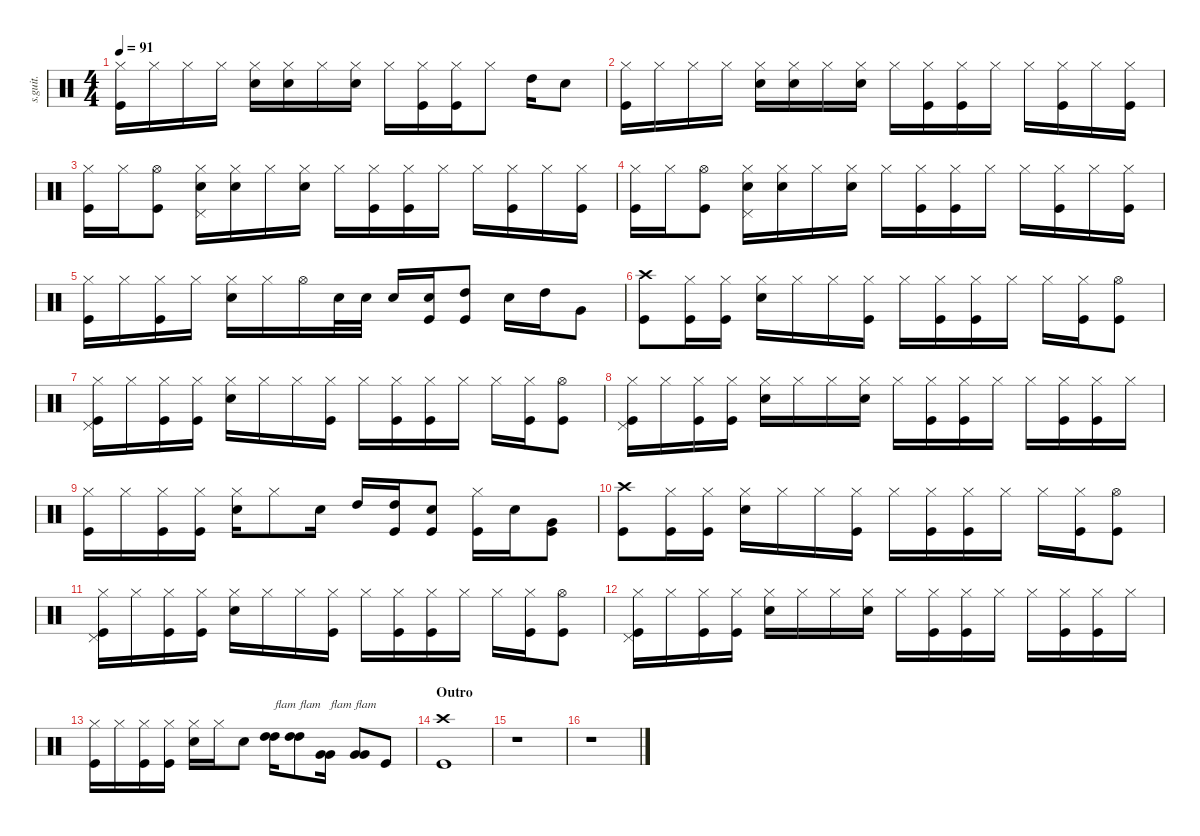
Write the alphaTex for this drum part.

\defaultSystemsLayout 4
\hideDynamics
\bracketExtendMode nobrackets
\track ("Chad" "s.guit.") {instrument percussion}
\staff {score}
\articulation defaults
\ts (4 4)
\tempo 91
\clef neutral
\ks c
("Hi-Hat (closed)" "Kick (hit)").16{dy f} "Hi-Hat (closed)".16 "Hi-Hat (closed)".16 "Hi-Hat (closed)".16 ("Hi-Hat (closed)" "Snare (hit) 2").16 ("Hi-Hat (closed)" "Snare (hit) 2").16 "Hi-Hat (closed)".16 ("Hi-Hat (closed)" "Snare (hit) 2").16 "Hi-Hat (closed)".16 ("Hi-Hat (closed)" "Kick (hit)").16 ("Hi-Hat (closed)" "Kick (hit)").16 "Hi-Hat (closed)".8 "High Tom (hit)".16 "Snare (hit) 2".8 |
("Hi-Hat (closed)" "Kick (hit)").16 "Hi-Hat (closed)".16 "Hi-Hat (closed)".16 "Hi-Hat (closed)".16 ("Hi-Hat (closed)" "Snare (hit) 2").16 ("Hi-Hat (closed)" "Snare (hit) 2").16 "Hi-Hat (closed)".16 ("Hi-Hat (closed)" "Snare (hit) 2").16 "Hi-Hat (closed)".16 ("Hi-Hat (closed)" "Kick (hit)").16 ("Hi-Hat (closed)" "Kick (hit)").16 "Hi-Hat (closed)".16 "Hi-Hat (closed)".16 ("Hi-Hat (closed)" "Kick (hit)").16 "Hi-Hat (closed)".16 ("Hi-Hat (closed)" "Kick (hit)").16 |
("Hi-Hat (closed)" "Kick (hit)").16 "Hi-Hat (closed)".16 ("Hi-Hat (open)" "Kick (hit)").8 ("Hi-Hat (closed)" "Snare (hit) 2" "Pedal Hi-Hat (hit)").16 ("Hi-Hat (closed)" "Snare (hit) 2").16 "Hi-Hat (closed)".16 ("Hi-Hat (closed)" "Snare (hit) 2").16 "Hi-Hat (closed)".16 ("Hi-Hat (closed)" "Kick (hit)").16 ("Hi-Hat (closed)" "Kick (hit)").16 "Hi-Hat (closed)".16 "Hi-Hat (closed)".16 ("Hi-Hat (closed)" "Kick (hit)").16 "Hi-Hat (closed)".16 ("Hi-Hat (closed)" "Kick (hit)").16 |
("Hi-Hat (closed)" "Kick (hit)").16 "Hi-Hat (closed)".16 ("Hi-Hat (open)" "Kick (hit)").8 ("Hi-Hat (closed)" "Snare (hit) 2" "Pedal Hi-Hat (hit)").16 ("Hi-Hat (closed)" "Snare (hit) 2").16 "Hi-Hat (closed)".16 ("Hi-Hat (closed)" "Snare (hit) 2").16 "Hi-Hat (closed)".16 ("Hi-Hat (closed)" "Kick (hit)").16 ("Hi-Hat (closed)" "Kick (hit)").16 "Hi-Hat (closed)".16 "Hi-Hat (closed)".16 ("Hi-Hat (closed)" "Kick (hit)").16 "Hi-Hat (closed)".16 ("Hi-Hat (closed)" "Kick (hit)").16 |
("Hi-Hat (closed)" "Kick (hit)").16 "Hi-Hat (closed)".16 ("Hi-Hat (closed)" "Kick (hit)").16 "Hi-Hat (closed)".16 ("Hi-Hat (closed)" "Snare (hit) 2").16 "Hi-Hat (closed)".16 "Hi-Hat (open)".16 "Snare (hit) 2".32 "Snare (hit) 2".32 "Snare (hit) 2".16 ("Snare (hit) 2" "Kick (hit)").16 ("High Tom (hit)" "Kick (hit)").8 "Snare (hit) 2".16 "High Tom (hit)".16 "Very Low Tom (hit)".8 |
("Crash high (hit)" "Kick (hit)").8 ("Hi-Hat (closed)" "Kick (hit)").16 ("Hi-Hat (closed)" "Kick (hit)").16 ("Hi-Hat (closed)" "Snare (hit) 2").16 "Hi-Hat (closed)".16 "Hi-Hat (closed)".16 ("Hi-Hat (closed)" "Kick (hit)").16 "Hi-Hat (closed)".16 ("Hi-Hat (closed)" "Kick (hit)").16 ("Hi-Hat (closed)" "Kick (hit)").16 "Hi-Hat (closed)".16 "Hi-Hat (closed)".16 ("Hi-Hat (closed)" "Kick (hit)").16 ("Hi-Hat (open)" "Kick (hit)").8 |
("Hi-Hat (closed)" "Kick (hit)" "Pedal Hi-Hat (hit)").16 "Hi-Hat (closed)".16 ("Hi-Hat (closed)" "Kick (hit)").16 ("Hi-Hat (closed)" "Kick (hit)").16 ("Hi-Hat (closed)" "Snare (hit) 2").16 "Hi-Hat (closed)".16 "Hi-Hat (closed)".16 ("Hi-Hat (closed)" "Kick (hit)").16 "Hi-Hat (closed)".16 ("Hi-Hat (closed)" "Kick (hit)").16 ("Hi-Hat (closed)" "Kick (hit)").16 "Hi-Hat (closed)".16 "Hi-Hat (closed)".16 ("Hi-Hat (closed)" "Kick (hit)").16 ("Hi-Hat (open)" "Kick (hit)").8 |
("Hi-Hat (closed)" "Kick (hit)" "Pedal Hi-Hat (hit)").16 "Hi-Hat (closed)".16 ("Hi-Hat (closed)" "Kick (hit)").16 ("Hi-Hat (closed)" "Kick (hit)").16 ("Hi-Hat (closed)" "Snare (hit) 2").16 "Hi-Hat (closed)".16 "Hi-Hat (closed)".16 ("Hi-Hat (closed)" "Snare (hit) 2").16 "Hi-Hat (closed)".16 ("Hi-Hat (closed)" "Kick (hit)").16 ("Hi-Hat (closed)" "Kick (hit)").16 "Hi-Hat (closed)".16 "Hi-Hat (closed)".16 ("Hi-Hat (closed)" "Kick (hit)").16 ("Hi-Hat (closed)" "Kick (hit)").16 "Hi-Hat (closed)".16 |
("Hi-Hat (closed)" "Kick (hit)").16 "Hi-Hat (closed)".16 ("Hi-Hat (closed)" "Kick (hit)").16 ("Hi-Hat (closed)" "Kick (hit)").16 ("Hi-Hat (closed)" "Snare (hit) 2").16 "Hi-Hat (closed)".8 "Snare (hit) 2".16 "High Tom (hit)".16 ("High Tom (hit)" "Kick (hit)").16 ("Snare (hit) 2" "Kick (hit)").8 ("Hi-Hat (closed)" "Kick (hit)").16 "Snare (hit) 2".16 ("Very Low Tom (hit)" "Kick (hit)").8 |
("Crash high (hit)" "Kick (hit)").8 ("Hi-Hat (closed)" "Kick (hit)").16 ("Hi-Hat (closed)" "Kick (hit)").16 ("Hi-Hat (closed)" "Snare (hit) 2").16 "Hi-Hat (closed)".16 "Hi-Hat (closed)".16 ("Hi-Hat (closed)" "Kick (hit)").16 "Hi-Hat (closed)".16 ("Hi-Hat (closed)" "Kick (hit)").16 ("Hi-Hat (closed)" "Kick (hit)").16 "Hi-Hat (closed)".16 "Hi-Hat (closed)".16 ("Hi-Hat (closed)" "Kick (hit)").16 ("Hi-Hat (open)" "Kick (hit)").8 |
("Hi-Hat (closed)" "Kick (hit)" "Pedal Hi-Hat (hit)").16 "Hi-Hat (closed)".16 ("Hi-Hat (closed)" "Kick (hit)").16 ("Hi-Hat (closed)" "Kick (hit)").16 ("Hi-Hat (closed)" "Snare (hit) 2").16 "Hi-Hat (closed)".16 "Hi-Hat (closed)".16 ("Hi-Hat (closed)" "Kick (hit)").16 "Hi-Hat (closed)".16 ("Hi-Hat (closed)" "Kick (hit)").16 ("Hi-Hat (closed)" "Kick (hit)").16 "Hi-Hat (closed)".16 "Hi-Hat (closed)".16 ("Hi-Hat (closed)" "Kick (hit)").16 ("Hi-Hat (open)" "Kick (hit)").8 |
("Hi-Hat (closed)" "Kick (hit)" "Pedal Hi-Hat (hit)").16 "Hi-Hat (closed)".16 ("Hi-Hat (closed)" "Kick (hit)").16 ("Hi-Hat (closed)" "Kick (hit)").16 ("Hi-Hat (closed)" "Snare (hit) 2").16 "Hi-Hat (closed)".16 "Hi-Hat (closed)".16 ("Hi-Hat (closed)" "Snare (hit) 2").16 "Hi-Hat (closed)".16 ("Hi-Hat (closed)" "Kick (hit)").16 ("Hi-Hat (closed)" "Kick (hit)").16 "Hi-Hat (closed)".16 "Hi-Hat (closed)".16 ("Hi-Hat (closed)" "Kick (hit)").16 ("Hi-Hat (closed)" "Kick (hit)").16 "Hi-Hat (closed)".16 |
("Hi-Hat (closed)" "Kick (hit)").16 "Hi-Hat (closed)".16 ("Hi-Hat (closed)" "Kick (hit)").16 ("Hi-Hat (closed)" "Kick (hit)").16 ("Hi-Hat (closed)" "Snare (hit) 2").16 "Hi-Hat (closed)".16 "Snare (hit) 2".8 ("High Tom (hit)" "High Tom (hit)").16{txt "flam"} ("High Tom (hit)" "High Tom (hit)").8{txt "flam"} ("Very Low Tom (hit)" "Very Low Tom (hit)").16{txt "flam"} ("Very Low Tom (hit)" "Very Low Tom (hit)").8{txt "flam"} "Kick (hit)".8 |
\section ("" "Outro")
("Crash high (hit)" "Kick (hit)").1 |
r.1 |
r.1
